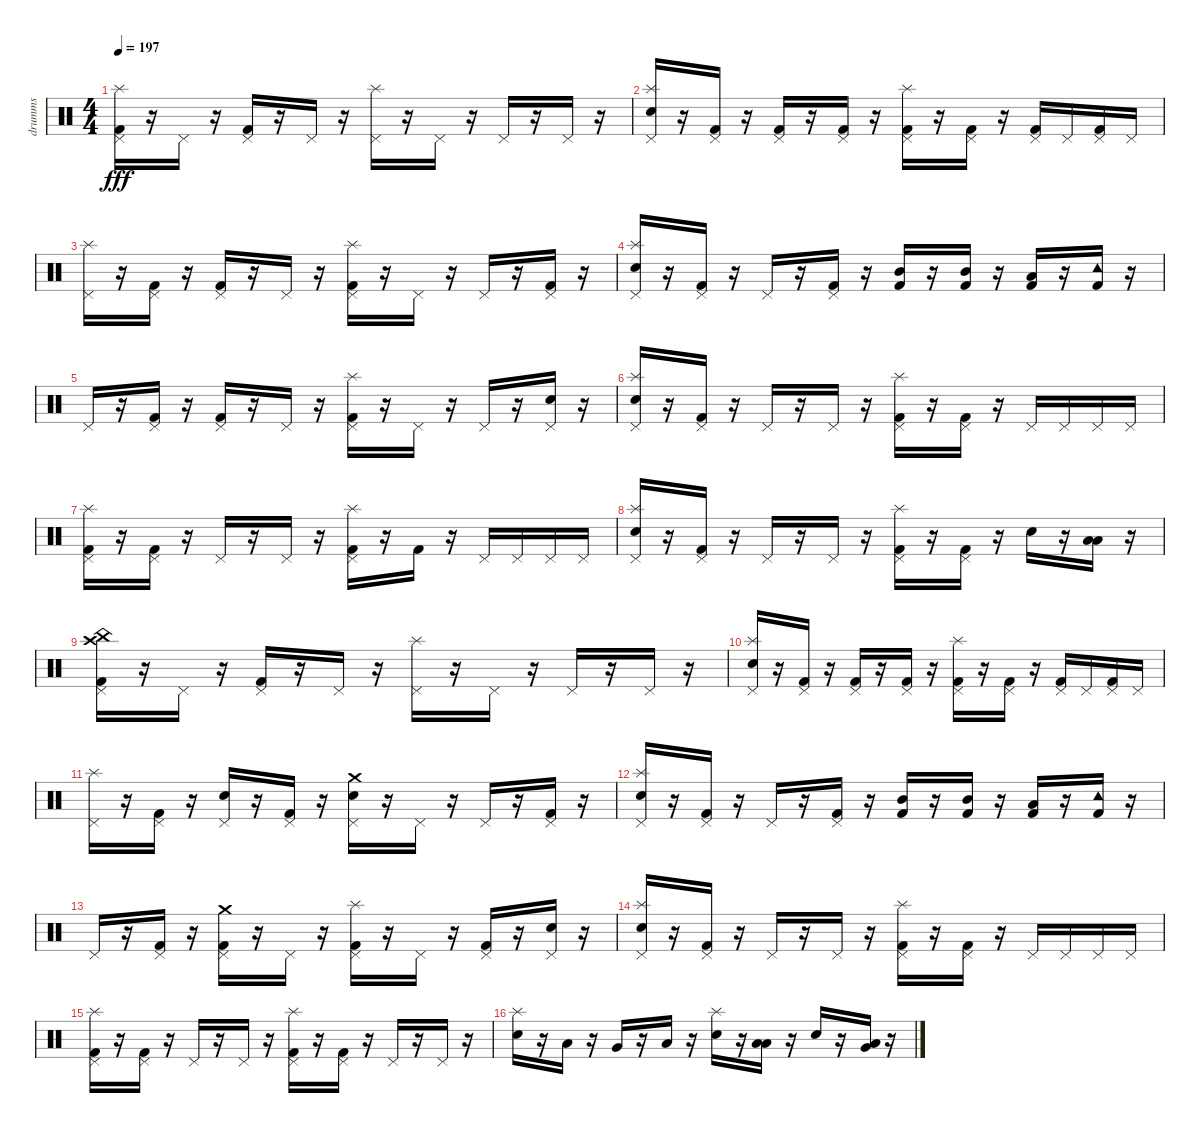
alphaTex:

\track ("drumms" "drumms") {instrument percussion}
\staff {score}
\articulation defaults
\ts (4 4)
\tempo 197
\clef neutral
\ks c
("Kick (hit) 2" "Pedal Hi-Hat (hit)" "Splash (hit)").16{dy fff} r.16 "Pedal Hi-Hat (hit)".16 r.16 ("Kick (hit) 2" "Pedal Hi-Hat (hit)").16 r.16 "Pedal Hi-Hat (hit)".16 r.16 ("Pedal Hi-Hat (hit)" "Splash (hit)").16 r.16 "Pedal Hi-Hat (hit)".16 r.16 "Pedal Hi-Hat (hit)".16 r.16 "Pedal Hi-Hat (hit)".16 r.16 |
("Snare (hit) 2" "Pedal Hi-Hat (hit)" "Splash (hit)").16 r.16 ("Kick (hit) 2" "Pedal Hi-Hat (hit)").16 r.16 ("Kick (hit) 2" "Pedal Hi-Hat (hit)").16 r.16 ("Kick (hit) 2" "Pedal Hi-Hat (hit)").16 r.16 ("Kick (hit) 2" "Pedal Hi-Hat (hit)" "Splash (hit)").16 r.16 ("Kick (hit) 2" "Pedal Hi-Hat (hit)").16 r.16 ("Kick (hit) 2" "Pedal Hi-Hat (hit)").16 "Pedal Hi-Hat (hit)".16 ("Kick (hit) 2" "Pedal Hi-Hat (hit)").16 "Pedal Hi-Hat (hit)".16 |
("Pedal Hi-Hat (hit)" "Splash (hit)").16 r.16 ("Kick (hit) 2" "Pedal Hi-Hat (hit)").16 r.16 ("Kick (hit) 2" "Pedal Hi-Hat (hit)").16 r.16 "Pedal Hi-Hat (hit)".16 r.16 ("Kick (hit) 2" "Pedal Hi-Hat (hit)" "Splash (hit)").16 r.16 "Pedal Hi-Hat (hit)".16 r.16 "Pedal Hi-Hat (hit)".16 r.16 ("Kick (hit) 2" "Pedal Hi-Hat (hit)").16 r.16 |
("Snare (hit) 2" "Pedal Hi-Hat (hit)" "Splash (hit)").16 r.16 ("Kick (hit) 2" "Pedal Hi-Hat (hit)").16 r.16 "Pedal Hi-Hat (hit)".16 r.16 ("Kick (hit) 2" "Pedal Hi-Hat (hit)").16 r.16 ("Kick (hit) 2" "Mid Tom (hit)").16 r.16 ("Kick (hit) 2" "Mid Tom (hit)").16 r.16 ("Kick (hit) 2" "Low Tom (hit)").16 r.16 ("Kick (hit) 2" "Tambourine (hit)").16 r.16 |
"Pedal Hi-Hat (hit)".16 r.16 ("Kick (hit) 2" "Pedal Hi-Hat (hit)").16 r.16 ("Kick (hit) 2" "Pedal Hi-Hat (hit)").16 r.16 "Pedal Hi-Hat (hit)".16 r.16 ("Kick (hit) 2" "Pedal Hi-Hat (hit)" "Splash (hit)").16 r.16 "Pedal Hi-Hat (hit)".16 r.16 "Pedal Hi-Hat (hit)".16 r.16 ("Snare (hit) 2" "Pedal Hi-Hat (hit)").16 r.16 |
("Snare (hit) 2" "Pedal Hi-Hat (hit)" "Splash (hit)").16 r.16 ("Kick (hit) 2" "Pedal Hi-Hat (hit)").16 r.16 "Pedal Hi-Hat (hit)".16 r.16 "Pedal Hi-Hat (hit)".16 r.16 ("Kick (hit) 2" "Pedal Hi-Hat (hit)" "Splash (hit)").16 r.16 ("Kick (hit) 2" "Pedal Hi-Hat (hit)").16 r.16 "Pedal Hi-Hat (hit)".16 "Pedal Hi-Hat (hit)".16 "Pedal Hi-Hat (hit)".16 "Pedal Hi-Hat (hit)".16 |
("Kick (hit) 2" "Pedal Hi-Hat (hit)" "Splash (hit)").16 r.16 ("Kick (hit) 2" "Pedal Hi-Hat (hit)").16 r.16 "Pedal Hi-Hat (hit)".16 r.16 "Pedal Hi-Hat (hit)".16 r.16 ("Kick (hit) 2" "Pedal Hi-Hat (hit)" "Splash (hit)").16 r.16 "Kick (hit) 2".16 r.16 "Pedal Hi-Hat (hit)".16 "Pedal Hi-Hat (hit)".16 "Pedal Hi-Hat (hit)".16 "Pedal Hi-Hat (hit)".16 |
("Snare (hit) 2" "Pedal Hi-Hat (hit)" "Splash (hit)").16 r.16 ("Kick (hit) 2" "Pedal Hi-Hat (hit)").16 r.16 "Pedal Hi-Hat (hit)".16 r.16 "Pedal Hi-Hat (hit)".16 r.16 ("Kick (hit) 2" "Pedal Hi-Hat (hit)" "Splash (hit)").16 r.16 ("Kick (hit) 2" "Pedal Hi-Hat (hit)").16 r.16 "Snare (hit) 2".16 r.16 ("Low Floor Tom (hit)" "Low Tom (hit)").16 r.16 |
("Kick (hit) 2" "Pedal Hi-Hat (hit)" "Crash high (hit)" "China (hit)").16 r.16 "Pedal Hi-Hat (hit)".16 r.16 ("Kick (hit) 2" "Pedal Hi-Hat (hit)").16 r.16 "Pedal Hi-Hat (hit)".16 r.16 ("Pedal Hi-Hat (hit)" "Splash (hit)").16 r.16 "Pedal Hi-Hat (hit)".16 r.16 "Pedal Hi-Hat (hit)".16 r.16 "Pedal Hi-Hat (hit)".16 r.16 |
("Snare (hit) 2" "Pedal Hi-Hat (hit)" "Splash (hit)").16 r.16 ("Kick (hit) 2" "Pedal Hi-Hat (hit)").16 r.16 ("Kick (hit) 2" "Pedal Hi-Hat (hit)").16 r.16 ("Kick (hit) 2" "Pedal Hi-Hat (hit)").16 r.16 ("Kick (hit) 2" "Pedal Hi-Hat (hit)" "Splash (hit)").16 r.16 ("Kick (hit) 2" "Pedal Hi-Hat (hit)").16 r.16 ("Kick (hit) 2" "Pedal Hi-Hat (hit)").16 "Pedal Hi-Hat (hit)".16 ("Kick (hit) 2" "Pedal Hi-Hat (hit)").16 "Pedal Hi-Hat (hit)".16 |
("Pedal Hi-Hat (hit)" "Splash (hit)").16 r.16 ("Kick (hit) 2" "Pedal Hi-Hat (hit)").16 r.16 ("Snare (hit) 2" "Pedal Hi-Hat (hit)").16 r.16 ("Kick (hit) 2" "Pedal Hi-Hat (hit)").16 r.16 ("Snare (hit) 2" "Pedal Hi-Hat (hit)" "Crash medium (hit)").16 r.16 "Pedal Hi-Hat (hit)".16 r.16 "Pedal Hi-Hat (hit)".16 r.16 ("Kick (hit) 2" "Pedal Hi-Hat (hit)").16 r.16 |
("Snare (hit) 2" "Pedal Hi-Hat (hit)" "Splash (hit)").16 r.16 ("Kick (hit) 2" "Pedal Hi-Hat (hit)").16 r.16 "Pedal Hi-Hat (hit)".16 r.16 ("Kick (hit) 2" "Pedal Hi-Hat (hit)").16 r.16 ("Kick (hit) 2" "Mid Tom (hit)").16 r.16 ("Kick (hit) 2" "Mid Tom (hit)").16 r.16 ("Kick (hit) 2" "Low Tom (hit)").16 r.16 ("Kick (hit) 2" "Tambourine (hit)").16 r.16 |
"Pedal Hi-Hat (hit)".16 r.16 ("Kick (hit) 2" "Pedal Hi-Hat (hit)").16 r.16 ("Kick (hit) 2" "Pedal Hi-Hat (hit)" "Crash medium (hit)").16 r.16 "Pedal Hi-Hat (hit)".16 r.16 ("Kick (hit) 2" "Pedal Hi-Hat (hit)" "Splash (hit)").16 r.16 "Pedal Hi-Hat (hit)".16 r.16 ("Kick (hit) 2" "Pedal Hi-Hat (hit)").16 r.16 ("Snare (hit) 2" "Pedal Hi-Hat (hit)").16 r.16 |
("Snare (hit) 2" "Pedal Hi-Hat (hit)" "Splash (hit)").16 r.16 ("Kick (hit) 2" "Pedal Hi-Hat (hit)").16 r.16 "Pedal Hi-Hat (hit)".16 r.16 "Pedal Hi-Hat (hit)".16 r.16 ("Kick (hit) 2" "Pedal Hi-Hat (hit)" "Splash (hit)").16 r.16 ("Kick (hit) 2" "Pedal Hi-Hat (hit)").16 r.16 "Pedal Hi-Hat (hit)".16 "Pedal Hi-Hat (hit)".16 "Pedal Hi-Hat (hit)".16 "Pedal Hi-Hat (hit)".16 |
("Kick (hit) 2" "Pedal Hi-Hat (hit)" "Splash (hit)").16 r.16 ("Kick (hit) 2" "Pedal Hi-Hat (hit)").16 r.16 "Pedal Hi-Hat (hit)".16 r.16 "Pedal Hi-Hat (hit)".16 r.16 ("Kick (hit) 2" "Pedal Hi-Hat (hit)" "Splash (hit)").16 r.16 ("Kick (hit) 2" "Pedal Hi-Hat (hit)").16 r.16 "Pedal Hi-Hat (hit)".16 r.16 "Pedal Hi-Hat (hit)".16 r.16 |
("Snare (hit) 2" "Splash (hit)").16 r.16 "Low Tom (hit)".16 r.16 "Very Low Tom (hit)".16 r.16 "Low Floor Tom (hit)".16 r.16 ("Snare (hit) 2" "Splash (hit)").16 r.16 ("Low Floor Tom (hit)" "Low Tom (hit)").16 r.16 "Snare (hit) 2".16 r.16 ("Low Floor Tom (hit)" "Very Low Tom (hit)").16 r.16
